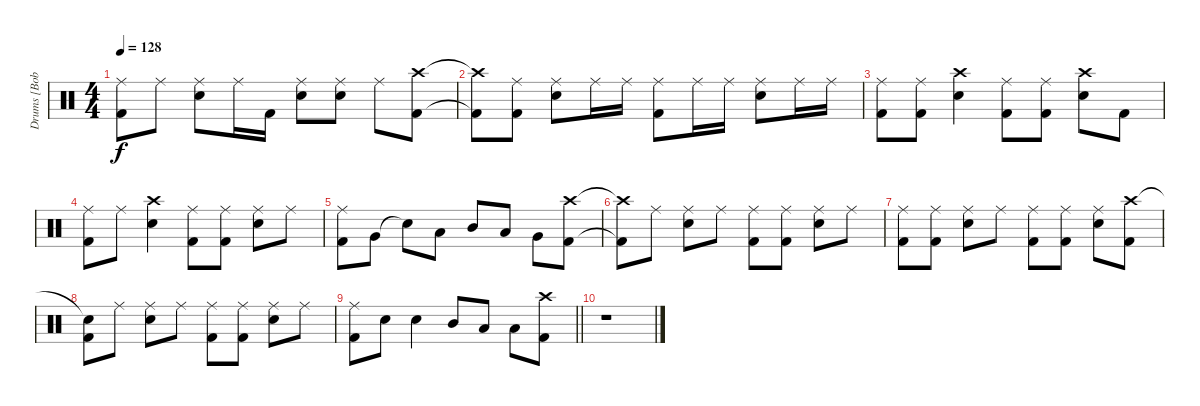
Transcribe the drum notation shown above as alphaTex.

\track ("Drums [Bobby Blotzer]" "Drums [Bob") {instrument percussion}
\staff {score}
\articulation defaults
\ts (4 4)
\tempo 128
\clef neutral
\ks c
("Ride (middle)" "Kick (hit) 2").8{dy f} "Ride (middle)".8 ("Ride (middle)" "Electric Snare (hit)").8 "Ride (middle)".16 "Kick (hit) 2".16 ("Ride (middle)" "Electric Snare (hit)").8 ("Ride (middle)" "Electric Snare (hit)").8 "Ride (middle)".8 ("Crash high (hit)" "Kick (hit) 2").8 |
("Crash high (hit)"{t} "Kick (hit) 2"{t}).8 ("Ride (middle)" "Kick (hit) 2").8 ("Ride (middle)" "Electric Snare (hit)").8 "Ride (middle)".16 "Ride (middle)".16 ("Ride (middle)" "Kick (hit) 2").8 "Ride (middle)".16 "Ride (middle)".16 ("Ride (middle)" "Electric Snare (hit)").8 "Ride (middle)".16 "Ride (middle)".16 |
("Ride (middle)" "Kick (hit) 2").8 ("Ride (middle)" "Kick (hit) 2").8 ("Crash high (hit)" "Electric Snare (hit)").4 ("Ride (middle)" "Kick (hit) 2").8 ("Ride (middle)" "Kick (hit) 2").8 ("Crash high (hit)" "Electric Snare (hit)").8 "Kick (hit) 2".8 |
("Ride (middle)" "Kick (hit) 2").8 "Ride (middle)".8 ("Crash high (hit)" "Electric Snare (hit)").4 ("Ride (middle)" "Kick (hit) 2").8 ("Ride (middle)" "Kick (hit) 2").8 ("Ride (middle)" "Electric Snare (hit)").8 "Ride (middle)".8 |
("Ride (middle)" "Kick (hit) 2").8 "Very Low Tom (hit)".8 "Snare (hit)"{t}.8 "Low Tom (hit)".8 "Mid Tom (hit)".8 "Low Tom (hit)".8 "Very Low Tom (hit)".8 ("Crash high (hit)" "Kick (hit) 2").8 |
("Crash high (hit)"{t} "Kick (hit) 2"{t}).8 "Ride (middle)".8 ("Ride (middle)" "Electric Snare (hit)").8 "Ride (middle)".8 ("Ride (middle)" "Kick (hit) 2").8 ("Ride (middle)" "Kick (hit) 2").8 ("Ride (middle)" "Electric Snare (hit)").8 "Ride (middle)".8 |
("Ride (middle)" "Kick (hit) 2").8 ("Ride (middle)" "Kick (hit) 2").8 ("Ride (middle)" "Electric Snare (hit)").8 "Ride (middle)".8 ("Ride (middle)" "Kick (hit) 2").8 ("Ride (middle)" "Kick (hit) 2").8 ("Ride (middle)" "Electric Snare (hit)").8 ("Crash high (hit)" "Kick (hit) 2").8 |
("Snare (hit)"{t} "Kick (hit) 2").8 "Ride (middle)".8 ("Ride (middle)" "Electric Snare (hit)").8 "Ride (middle)".8 ("Ride (middle)" "Kick (hit) 2").8 ("Ride (middle)" "Kick (hit) 2").8 ("Ride (middle)" "Electric Snare (hit)").8 "Ride (middle)".8 |
\barLineRight lightlight
("Ride (middle)" "Kick (hit) 2").8 "Electric Snare (hit)".8 "Electric Snare (hit)".4 "Mid Tom (hit)".8 "Low Tom (hit)".8 "Low Tom (hit)".8 ("Crash high (hit)" "Kick (hit) 2").8 |
r.1
